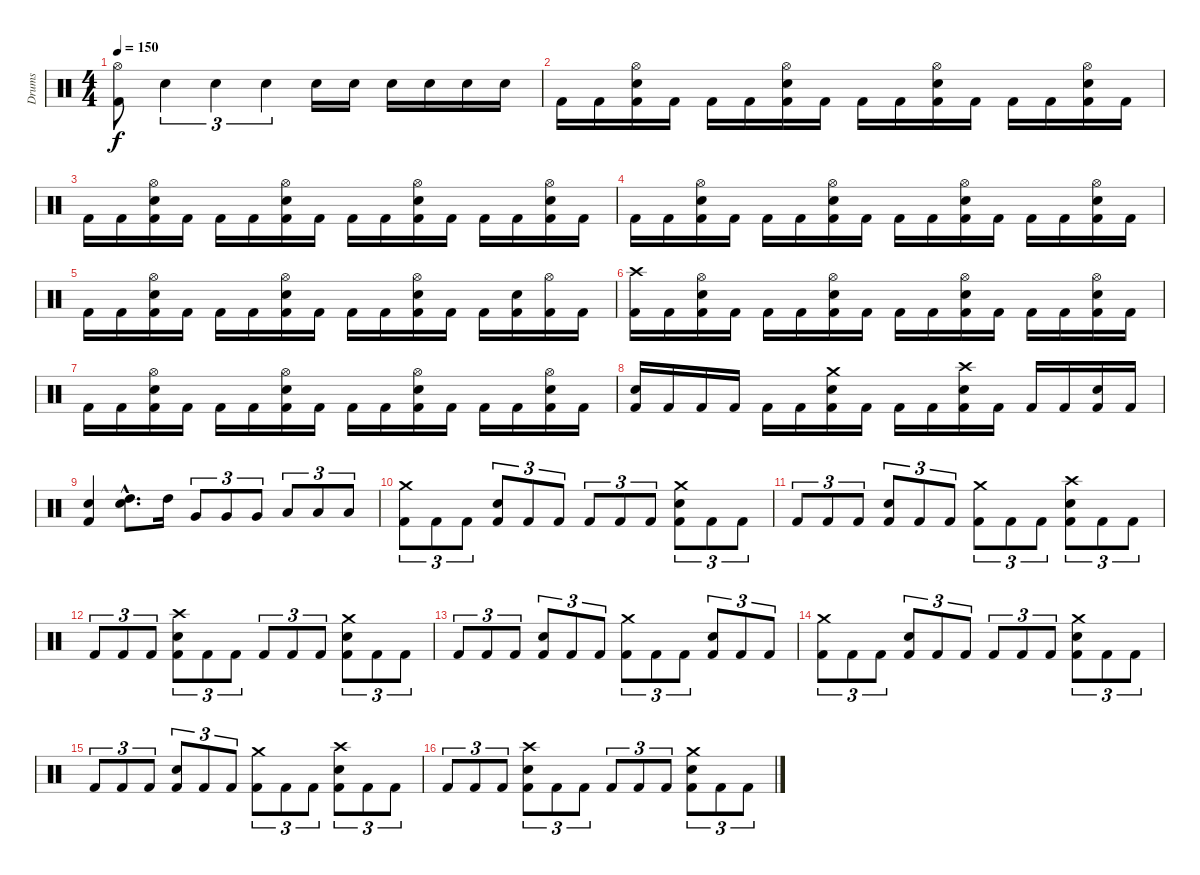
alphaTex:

\track ("Drums" "Drums") {instrument percussion}
\staff {score}
\articulation defaults
\ts (4 4)
\tempo 150
\clef neutral
\ks c
("Hi-Hat (open)" "Kick (hit) 2").8{dy f} "Snare (hit) 2".4{tu (3 2)} "Snare (hit) 2".4{tu (3 2)} "Snare (hit) 2".4{tu (3 2)} "Snare (hit) 2".16 "Snare (hit) 2".16 "Snare (hit) 2".16 "Snare (hit) 2".16 "Snare (hit) 2".16 "Snare (hit) 2".16 |
"Kick (hit) 2".16 "Kick (hit) 2".16 ("Hi-Hat (open)" "Snare (hit) 2" "Kick (hit) 2").16 "Kick (hit) 2".16 "Kick (hit) 2".16 "Kick (hit) 2".16 ("Hi-Hat (open)" "Snare (hit) 2" "Kick (hit) 2").16 "Kick (hit) 2".16 "Kick (hit) 2".16 "Kick (hit) 2".16 ("Hi-Hat (open)" "Snare (hit) 2" "Kick (hit) 2").16 "Kick (hit) 2".16 "Kick (hit) 2".16 "Kick (hit) 2".16 ("Hi-Hat (open)" "Snare (hit) 2" "Kick (hit) 2").16 "Kick (hit) 2".16 |
"Kick (hit) 2".16 "Kick (hit) 2".16 ("Hi-Hat (open)" "Snare (hit) 2" "Kick (hit) 2").16 "Kick (hit) 2".16 "Kick (hit) 2".16 "Kick (hit) 2".16 ("Hi-Hat (open)" "Snare (hit) 2" "Kick (hit) 2").16 "Kick (hit) 2".16 "Kick (hit) 2".16 "Kick (hit) 2".16 ("Hi-Hat (open)" "Snare (hit) 2" "Kick (hit) 2").16 "Kick (hit) 2".16 "Kick (hit) 2".16 "Kick (hit) 2".16 ("Hi-Hat (open)" "Snare (hit) 2" "Kick (hit) 2").16 "Kick (hit) 2".16 |
"Kick (hit) 2".16 "Kick (hit) 2".16 ("Hi-Hat (open)" "Snare (hit) 2" "Kick (hit) 2").16 "Kick (hit) 2".16 "Kick (hit) 2".16 "Kick (hit) 2".16 ("Hi-Hat (open)" "Snare (hit) 2" "Kick (hit) 2").16 "Kick (hit) 2".16 "Kick (hit) 2".16 "Kick (hit) 2".16 ("Hi-Hat (open)" "Snare (hit) 2" "Kick (hit) 2").16 "Kick (hit) 2".16 "Kick (hit) 2".16 "Kick (hit) 2".16 ("Hi-Hat (open)" "Snare (hit) 2" "Kick (hit) 2").16 "Kick (hit) 2".16 |
"Kick (hit) 2".16 "Kick (hit) 2".16 ("Hi-Hat (open)" "Snare (hit) 2" "Kick (hit) 2").16 "Kick (hit) 2".16 "Kick (hit) 2".16 "Kick (hit) 2".16 ("Hi-Hat (open)" "Snare (hit) 2" "Kick (hit) 2").16 "Kick (hit) 2".16 "Kick (hit) 2".16 "Kick (hit) 2".16 ("Hi-Hat (open)" "Snare (hit) 2" "Kick (hit) 2").16 "Kick (hit) 2".16 "Kick (hit) 2".16 ("Snare (hit) 2" "Kick (hit) 2").16 ("Hi-Hat (open)" "Kick (hit) 2").16 "Kick (hit) 2".16 |
("Crash high (hit)" "Kick (hit) 2").16 "Kick (hit) 2".16 ("Hi-Hat (open)" "Snare (hit) 2" "Kick (hit) 2").16 "Kick (hit) 2".16 "Kick (hit) 2".16 "Kick (hit) 2".16 ("Hi-Hat (open)" "Snare (hit) 2" "Kick (hit) 2").16 "Kick (hit) 2".16 "Kick (hit) 2".16 "Kick (hit) 2".16 ("Hi-Hat (open)" "Snare (hit) 2" "Kick (hit) 2").16 "Kick (hit) 2".16 "Kick (hit) 2".16 "Kick (hit) 2".16 ("Hi-Hat (open)" "Snare (hit) 2" "Kick (hit) 2").16 "Kick (hit) 2".16 |
"Kick (hit) 2".16 "Kick (hit) 2".16 ("Hi-Hat (open)" "Snare (hit) 2" "Kick (hit) 2").16 "Kick (hit) 2".16 "Kick (hit) 2".16 "Kick (hit) 2".16 ("Hi-Hat (open)" "Snare (hit) 2" "Kick (hit) 2").16 "Kick (hit) 2".16 "Kick (hit) 2".16 "Kick (hit) 2".16 ("Hi-Hat (open)" "Snare (hit) 2" "Kick (hit) 2").16 "Kick (hit) 2".16 "Kick (hit) 2".16 "Kick (hit) 2".16 ("Hi-Hat (open)" "Snare (hit) 2" "Kick (hit) 2").16 "Kick (hit) 2".16 |
("Snare (hit) 2" "Kick (hit) 2").16 "Kick (hit) 2".16 "Kick (hit) 2".16 "Kick (hit) 2".16 "Kick (hit) 2".16 "Kick (hit) 2".16 ("Crash medium (hit)" "Snare (hit) 2" "Kick (hit) 2").16 "Kick (hit) 2".16 "Kick (hit) 2".16 "Kick (hit) 2".16 ("Crash high (hit)" "Snare (hit) 2" "Kick (hit) 2").16 "Kick (hit) 2".16 "Kick (hit) 2".16 "Kick (hit) 2".16 ("Snare (hit) 2" "Kick (hit) 2").16 "Kick (hit) 2".16 |
("Snare (hit) 2" "Kick (hit) 2").4 ("High Tom (hit)"{hac} "Snare (hit) 2"{hac}).8{d} "High Tom (hit)".16 "Very Low Tom (hit)".8{tu (3 2)} "Very Low Tom (hit)".8{tu (3 2)} "Very Low Tom (hit)".8{tu (3 2)} "Low Floor Tom (hit)".8{tu (3 2)} "Low Floor Tom (hit)".8{tu (3 2)} "Low Floor Tom (hit)".8{tu (3 2)} |
("Crash medium (hit)" "Kick (hit) 2").8{tu (3 2)} "Kick (hit) 2".8{tu (3 2)} "Kick (hit) 2".8{tu (3 2)} ("Snare (hit) 2" "Kick (hit) 2").8{tu (3 2)} "Kick (hit) 2".8{tu (3 2)} "Kick (hit) 2".8{tu (3 2)} "Kick (hit) 2".8{tu (3 2)} "Kick (hit) 2".8{tu (3 2)} "Kick (hit) 2".8{tu (3 2)} ("Crash medium (hit)" "Snare (hit) 2" "Kick (hit) 2").8{tu (3 2)} "Kick (hit) 2".8{tu (3 2)} "Kick (hit) 2".8{tu (3 2)} |
"Kick (hit) 2".8{tu (3 2)} "Kick (hit) 2".8{tu (3 2)} "Kick (hit) 2".8{tu (3 2)} ("Snare (hit) 2" "Kick (hit) 2").8{tu (3 2)} "Kick (hit) 2".8{tu (3 2)} "Kick (hit) 2".8{tu (3 2)} ("Crash medium (hit)" "Kick (hit) 2").8{tu (3 2)} "Kick (hit) 2".8{tu (3 2)} "Kick (hit) 2".8{tu (3 2)} ("Crash high (hit)" "Snare (hit) 2" "Kick (hit) 2").8{tu (3 2)} "Kick (hit) 2".8{tu (3 2)} "Kick (hit) 2".8{tu (3 2)} |
"Kick (hit) 2".8{tu (3 2)} "Kick (hit) 2".8{tu (3 2)} "Kick (hit) 2".8{tu (3 2)} ("Crash high (hit)" "Snare (hit) 2" "Kick (hit) 2").8{tu (3 2)} "Kick (hit) 2".8{tu (3 2)} "Kick (hit) 2".8{tu (3 2)} "Kick (hit) 2".8{tu (3 2)} "Kick (hit) 2".8{tu (3 2)} "Kick (hit) 2".8{tu (3 2)} ("Crash medium (hit)" "Snare (hit) 2" "Kick (hit) 2").8{tu (3 2)} "Kick (hit) 2".8{tu (3 2)} "Kick (hit) 2".8{tu (3 2)} |
"Kick (hit) 2".8{tu (3 2)} "Kick (hit) 2".8{tu (3 2)} "Kick (hit) 2".8{tu (3 2)} ("Snare (hit) 2" "Kick (hit) 2").8{tu (3 2)} "Kick (hit) 2".8{tu (3 2)} "Kick (hit) 2".8{tu (3 2)} ("Crash medium (hit)" "Kick (hit) 2").8{tu (3 2)} "Kick (hit) 2".8{tu (3 2)} "Kick (hit) 2".8{tu (3 2)} ("Snare (hit) 2" "Kick (hit) 2").8{tu (3 2)} "Kick (hit) 2".8{tu (3 2)} "Kick (hit) 2".8{tu (3 2)} |
("Crash medium (hit)" "Kick (hit) 2").8{tu (3 2)} "Kick (hit) 2".8{tu (3 2)} "Kick (hit) 2".8{tu (3 2)} ("Snare (hit) 2" "Kick (hit) 2").8{tu (3 2)} "Kick (hit) 2".8{tu (3 2)} "Kick (hit) 2".8{tu (3 2)} "Kick (hit) 2".8{tu (3 2)} "Kick (hit) 2".8{tu (3 2)} "Kick (hit) 2".8{tu (3 2)} ("Crash medium (hit)" "Snare (hit) 2" "Kick (hit) 2").8{tu (3 2)} "Kick (hit) 2".8{tu (3 2)} "Kick (hit) 2".8{tu (3 2)} |
"Kick (hit) 2".8{tu (3 2)} "Kick (hit) 2".8{tu (3 2)} "Kick (hit) 2".8{tu (3 2)} ("Snare (hit) 2" "Kick (hit) 2").8{tu (3 2)} "Kick (hit) 2".8{tu (3 2)} "Kick (hit) 2".8{tu (3 2)} ("Crash medium (hit)" "Kick (hit) 2").8{tu (3 2)} "Kick (hit) 2".8{tu (3 2)} "Kick (hit) 2".8{tu (3 2)} ("Crash high (hit)" "Snare (hit) 2" "Kick (hit) 2").8{tu (3 2)} "Kick (hit) 2".8{tu (3 2)} "Kick (hit) 2".8{tu (3 2)} |
"Kick (hit) 2".8{tu (3 2)} "Kick (hit) 2".8{tu (3 2)} "Kick (hit) 2".8{tu (3 2)} ("Crash high (hit)" "Snare (hit) 2" "Kick (hit) 2").8{tu (3 2)} "Kick (hit) 2".8{tu (3 2)} "Kick (hit) 2".8{tu (3 2)} "Kick (hit) 2".8{tu (3 2)} "Kick (hit) 2".8{tu (3 2)} "Kick (hit) 2".8{tu (3 2)} ("Crash medium (hit)" "Snare (hit) 2" "Kick (hit) 2").8{tu (3 2)} "Kick (hit) 2".8{tu (3 2)} "Kick (hit) 2".8{tu (3 2)}
